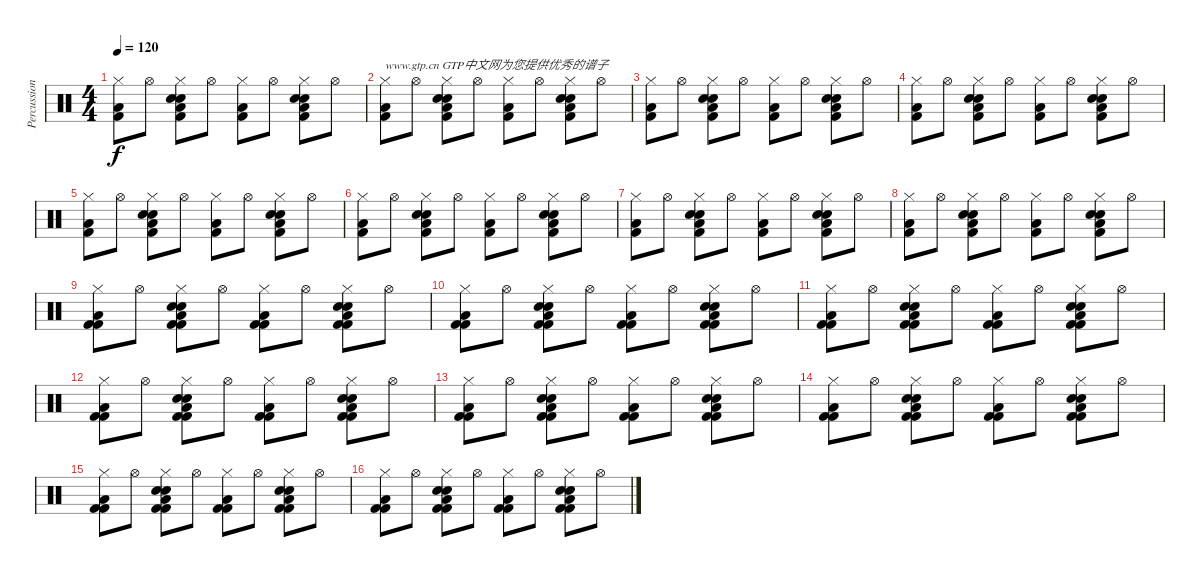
\track ("Percussions" "Percussion") {instrument percussion}
\staff {score}
\articulation defaults
\ts (4 4)
\tempo 120
\clef neutral
\ks c
("Hi-Hat (closed)" "Low Floor Tom (hit)" "Kick (hit) 2").8{dy f} "Hi-Hat (open)".8 ("Hi-Hat (closed)" "Electric Snare (hit)" "Hand Clap (hit)" "Low Floor Tom (hit)" "Kick (hit) 2").8 "Hi-Hat (open)".8 ("Hi-Hat (closed)" "Low Floor Tom (hit)" "Kick (hit) 2").8 "Hi-Hat (open)".8 ("Hi-Hat (closed)" "Electric Snare (hit)" "Hand Clap (hit)" "Low Floor Tom (hit)" "Kick (hit) 2").8 "Hi-Hat (open)".8 |
("Hi-Hat (closed)" "Low Floor Tom (hit)" "Kick (hit) 2").8{txt "www.gtp.cn GTP中文网为您提供优秀的谱子"} "Hi-Hat (open)".8 ("Hi-Hat (closed)" "Electric Snare (hit)" "Hand Clap (hit)" "Low Floor Tom (hit)" "Kick (hit) 2").8 "Hi-Hat (open)".8 ("Hi-Hat (closed)" "Low Floor Tom (hit)" "Kick (hit) 2").8 "Hi-Hat (open)".8 ("Hi-Hat (closed)" "Electric Snare (hit)" "Hand Clap (hit)" "Low Floor Tom (hit)" "Kick (hit) 2").8 "Hi-Hat (open)".8 |
("Hi-Hat (closed)" "Low Floor Tom (hit)" "Kick (hit) 2").8 "Hi-Hat (open)".8 ("Hi-Hat (closed)" "Electric Snare (hit)" "Hand Clap (hit)" "Low Floor Tom (hit)" "Kick (hit) 2").8 "Hi-Hat (open)".8 ("Hi-Hat (closed)" "Low Floor Tom (hit)" "Kick (hit) 2").8 "Hi-Hat (open)".8 ("Hi-Hat (closed)" "Electric Snare (hit)" "Hand Clap (hit)" "Low Floor Tom (hit)" "Kick (hit) 2").8 "Hi-Hat (open)".8 |
("Hi-Hat (closed)" "Low Floor Tom (hit)" "Kick (hit) 2").8 "Hi-Hat (open)".8 ("Hi-Hat (closed)" "Electric Snare (hit)" "Hand Clap (hit)" "Low Floor Tom (hit)" "Kick (hit) 2").8 "Hi-Hat (open)".8 ("Hi-Hat (closed)" "Low Floor Tom (hit)" "Kick (hit) 2").8 "Hi-Hat (open)".8 ("Hi-Hat (closed)" "Electric Snare (hit)" "Hand Clap (hit)" "Low Floor Tom (hit)" "Kick (hit) 2").8 "Hi-Hat (open)".8 |
("Hi-Hat (closed)" "Low Floor Tom (hit)" "Kick (hit) 2").8 "Hi-Hat (open)".8 ("Hi-Hat (closed)" "Electric Snare (hit)" "Hand Clap (hit)" "Low Floor Tom (hit)" "Kick (hit) 2").8 "Hi-Hat (open)".8 ("Hi-Hat (closed)" "Low Floor Tom (hit)" "Kick (hit) 2").8 "Hi-Hat (open)".8 ("Hi-Hat (closed)" "Electric Snare (hit)" "Hand Clap (hit)" "Low Floor Tom (hit)" "Kick (hit) 2").8 "Hi-Hat (open)".8 |
("Hi-Hat (closed)" "Low Floor Tom (hit)" "Kick (hit) 2").8 "Hi-Hat (open)".8 ("Hi-Hat (closed)" "Electric Snare (hit)" "Hand Clap (hit)" "Low Floor Tom (hit)" "Kick (hit) 2").8 "Hi-Hat (open)".8 ("Hi-Hat (closed)" "Low Floor Tom (hit)" "Kick (hit) 2").8 "Hi-Hat (open)".8 ("Hi-Hat (closed)" "Electric Snare (hit)" "Hand Clap (hit)" "Low Floor Tom (hit)" "Kick (hit) 2").8 "Hi-Hat (open)".8 |
("Hi-Hat (closed)" "Low Floor Tom (hit)" "Kick (hit) 2").8 "Hi-Hat (open)".8 ("Hi-Hat (closed)" "Electric Snare (hit)" "Hand Clap (hit)" "Low Floor Tom (hit)" "Kick (hit) 2").8 "Hi-Hat (open)".8 ("Hi-Hat (closed)" "Low Floor Tom (hit)" "Kick (hit) 2").8 "Hi-Hat (open)".8 ("Hi-Hat (closed)" "Electric Snare (hit)" "Hand Clap (hit)" "Low Floor Tom (hit)" "Kick (hit) 2").8 "Hi-Hat (open)".8 |
("Hi-Hat (closed)" "Low Floor Tom (hit)" "Kick (hit) 2").8 "Hi-Hat (open)".8 ("Hi-Hat (closed)" "Electric Snare (hit)" "Hand Clap (hit)" "Low Floor Tom (hit)" "Kick (hit) 2").8 "Hi-Hat (open)".8 ("Hi-Hat (closed)" "Low Floor Tom (hit)" "Kick (hit) 2").8 "Hi-Hat (open)".8 ("Hi-Hat (closed)" "Electric Snare (hit)" "Hand Clap (hit)" "Low Floor Tom (hit)" "Kick (hit) 2").8 "Hi-Hat (open)".8 |
("Kick (hit) 2" "Hi-Hat (closed)" "Low Floor Tom (hit)" "Kick (hit) 2").8 "Hi-Hat (open)".8 ("Kick (hit) 2" "Hi-Hat (closed)" "Electric Snare (hit)" "Hand Clap (hit)" "Low Floor Tom (hit)" "Kick (hit) 2").8 "Hi-Hat (open)".8 ("Kick (hit) 2" "Hi-Hat (closed)" "Low Floor Tom (hit)" "Kick (hit) 2").8 "Hi-Hat (open)".8 ("Kick (hit) 2" "Hi-Hat (closed)" "Electric Snare (hit)" "Hand Clap (hit)" "Low Floor Tom (hit)" "Kick (hit) 2").8 "Hi-Hat (open)".8 |
("Kick (hit) 2" "Hi-Hat (closed)" "Low Floor Tom (hit)" "Kick (hit) 2").8 "Hi-Hat (open)".8 ("Kick (hit) 2" "Hi-Hat (closed)" "Electric Snare (hit)" "Hand Clap (hit)" "Low Floor Tom (hit)" "Kick (hit) 2").8 "Hi-Hat (open)".8 ("Kick (hit) 2" "Hi-Hat (closed)" "Low Floor Tom (hit)" "Kick (hit) 2").8 "Hi-Hat (open)".8 ("Kick (hit) 2" "Hi-Hat (closed)" "Electric Snare (hit)" "Hand Clap (hit)" "Low Floor Tom (hit)" "Kick (hit) 2").8 "Hi-Hat (open)".8 |
("Kick (hit) 2" "Hi-Hat (closed)" "Low Floor Tom (hit)" "Kick (hit) 2").8 "Hi-Hat (open)".8 ("Kick (hit) 2" "Hi-Hat (closed)" "Electric Snare (hit)" "Hand Clap (hit)" "Low Floor Tom (hit)" "Kick (hit) 2").8 "Hi-Hat (open)".8 ("Kick (hit) 2" "Hi-Hat (closed)" "Low Floor Tom (hit)" "Kick (hit) 2").8 "Hi-Hat (open)".8 ("Kick (hit) 2" "Hi-Hat (closed)" "Electric Snare (hit)" "Hand Clap (hit)" "Low Floor Tom (hit)" "Kick (hit) 2").8 "Hi-Hat (open)".8 |
("Kick (hit) 2" "Hi-Hat (closed)" "Low Floor Tom (hit)" "Kick (hit) 2").8 "Hi-Hat (open)".8 ("Kick (hit) 2" "Hi-Hat (closed)" "Electric Snare (hit)" "Hand Clap (hit)" "Low Floor Tom (hit)" "Kick (hit) 2").8 "Hi-Hat (open)".8 ("Kick (hit) 2" "Hi-Hat (closed)" "Low Floor Tom (hit)" "Kick (hit) 2").8 "Hi-Hat (open)".8 ("Kick (hit) 2" "Hi-Hat (closed)" "Electric Snare (hit)" "Hand Clap (hit)" "Low Floor Tom (hit)" "Kick (hit) 2").8 "Hi-Hat (open)".8 |
("Kick (hit) 2" "Hi-Hat (closed)" "Low Floor Tom (hit)" "Kick (hit) 2").8 "Hi-Hat (open)".8 ("Kick (hit) 2" "Hi-Hat (closed)" "Electric Snare (hit)" "Hand Clap (hit)" "Low Floor Tom (hit)" "Kick (hit) 2").8 "Hi-Hat (open)".8 ("Kick (hit) 2" "Hi-Hat (closed)" "Low Floor Tom (hit)" "Kick (hit) 2").8 "Hi-Hat (open)".8 ("Kick (hit) 2" "Hi-Hat (closed)" "Electric Snare (hit)" "Hand Clap (hit)" "Low Floor Tom (hit)" "Kick (hit) 2").8 "Hi-Hat (open)".8 |
("Kick (hit) 2" "Hi-Hat (closed)" "Low Floor Tom (hit)" "Kick (hit) 2").8 "Hi-Hat (open)".8 ("Kick (hit) 2" "Hi-Hat (closed)" "Electric Snare (hit)" "Hand Clap (hit)" "Low Floor Tom (hit)" "Kick (hit) 2").8 "Hi-Hat (open)".8 ("Kick (hit) 2" "Hi-Hat (closed)" "Low Floor Tom (hit)" "Kick (hit) 2").8 "Hi-Hat (open)".8 ("Kick (hit) 2" "Hi-Hat (closed)" "Electric Snare (hit)" "Hand Clap (hit)" "Low Floor Tom (hit)" "Kick (hit) 2").8 "Hi-Hat (open)".8 |
("Kick (hit) 2" "Hi-Hat (closed)" "Low Floor Tom (hit)" "Kick (hit) 2").8 "Hi-Hat (open)".8 ("Kick (hit) 2" "Hi-Hat (closed)" "Electric Snare (hit)" "Hand Clap (hit)" "Low Floor Tom (hit)" "Kick (hit) 2").8 "Hi-Hat (open)".8 ("Kick (hit) 2" "Hi-Hat (closed)" "Low Floor Tom (hit)" "Kick (hit) 2").8 "Hi-Hat (open)".8 ("Kick (hit) 2" "Hi-Hat (closed)" "Electric Snare (hit)" "Hand Clap (hit)" "Low Floor Tom (hit)" "Kick (hit) 2").8 "Hi-Hat (open)".8 |
("Kick (hit) 2" "Hi-Hat (closed)" "Low Floor Tom (hit)" "Kick (hit) 2").8 "Hi-Hat (open)".8 ("Kick (hit) 2" "Hi-Hat (closed)" "Electric Snare (hit)" "Hand Clap (hit)" "Low Floor Tom (hit)" "Kick (hit) 2").8 "Hi-Hat (open)".8 ("Kick (hit) 2" "Hi-Hat (closed)" "Low Floor Tom (hit)" "Kick (hit) 2").8 "Hi-Hat (open)".8 ("Kick (hit) 2" "Hi-Hat (closed)" "Electric Snare (hit)" "Hand Clap (hit)" "Low Floor Tom (hit)" "Kick (hit) 2").8 "Hi-Hat (open)".8
